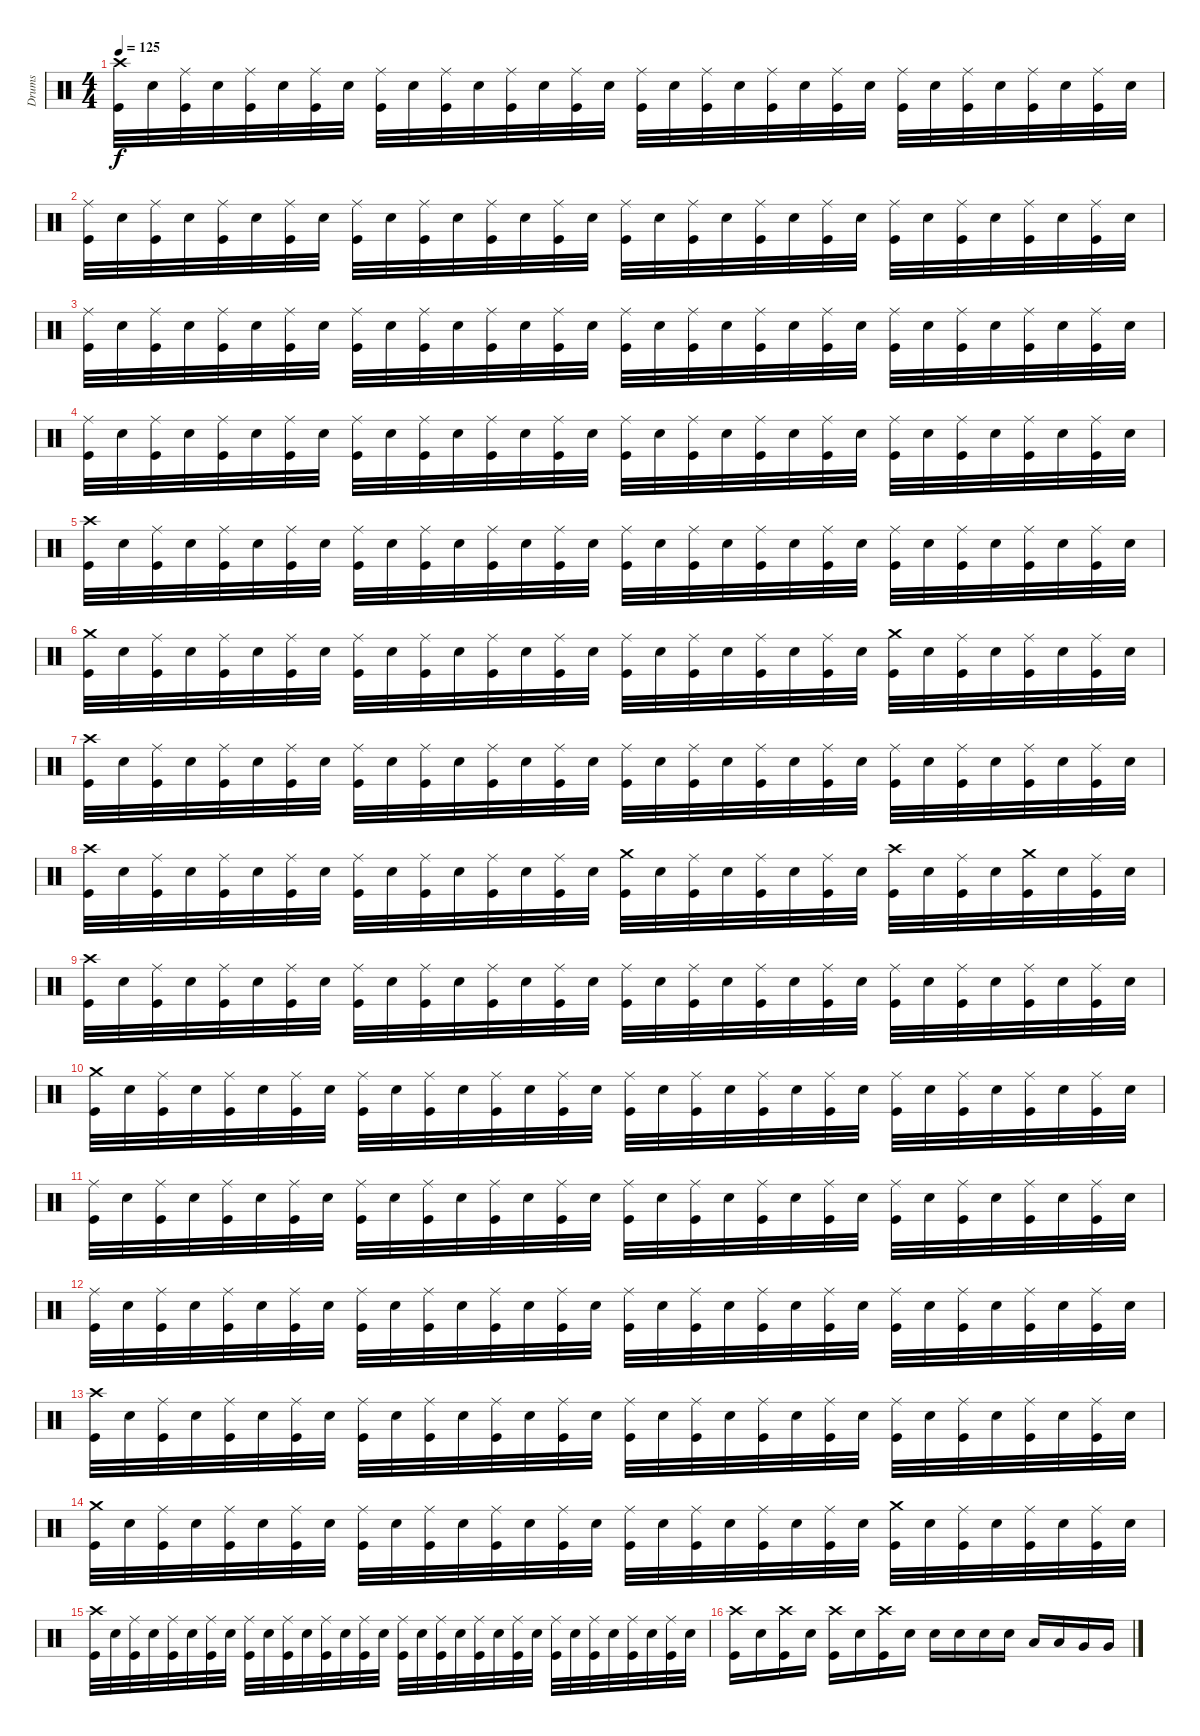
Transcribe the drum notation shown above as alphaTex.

\track ("Drums" "Drums") {instrument percussion}
\staff {score}
\articulation defaults
\ts (4 4)
\tempo 125
\clef neutral
\ks c
("Crash high (hit)" "Kick (hit)").32{dy f} "Electric Snare (hit)".32 ("Ride (middle)" "Kick (hit)").32 "Electric Snare (hit)".32 ("Ride (middle)" "Kick (hit)").32 "Electric Snare (hit)".32 ("Ride (middle)" "Kick (hit)").32 "Electric Snare (hit)".32 ("Ride (middle)" "Kick (hit)").32 "Electric Snare (hit)".32 ("Ride (middle)" "Kick (hit)").32 "Electric Snare (hit)".32 ("Ride (middle)" "Kick (hit)").32 "Electric Snare (hit)".32 ("Ride (middle)" "Kick (hit)").32 "Electric Snare (hit)".32 ("Ride (middle)" "Kick (hit)").32 "Electric Snare (hit)".32 ("Ride (middle)" "Kick (hit)").32 "Electric Snare (hit)".32 ("Ride (middle)" "Kick (hit)").32 "Electric Snare (hit)".32 ("Ride (middle)" "Kick (hit)").32 "Electric Snare (hit)".32 ("Ride (middle)" "Kick (hit)").32 "Electric Snare (hit)".32 ("Ride (middle)" "Kick (hit)").32 "Electric Snare (hit)".32 ("Ride (middle)" "Kick (hit)").32 "Electric Snare (hit)".32 ("Ride (middle)" "Kick (hit)").32 "Electric Snare (hit)".32 |
("Ride (middle)" "Kick (hit)").32 "Electric Snare (hit)".32 ("Ride (middle)" "Kick (hit)").32 "Electric Snare (hit)".32 ("Ride (middle)" "Kick (hit)").32 "Electric Snare (hit)".32 ("Ride (middle)" "Kick (hit)").32 "Electric Snare (hit)".32 ("Ride (middle)" "Kick (hit)").32 "Electric Snare (hit)".32 ("Ride (middle)" "Kick (hit)").32 "Electric Snare (hit)".32 ("Ride (middle)" "Kick (hit)").32 "Electric Snare (hit)".32 ("Ride (middle)" "Kick (hit)").32 "Electric Snare (hit)".32 ("Ride (middle)" "Kick (hit)").32 "Electric Snare (hit)".32 ("Ride (middle)" "Kick (hit)").32 "Electric Snare (hit)".32 ("Ride (middle)" "Kick (hit)").32 "Electric Snare (hit)".32 ("Ride (middle)" "Kick (hit)").32 "Electric Snare (hit)".32 ("Ride (middle)" "Kick (hit)").32 "Electric Snare (hit)".32 ("Ride (middle)" "Kick (hit)").32 "Electric Snare (hit)".32 ("Ride (middle)" "Kick (hit)").32 "Electric Snare (hit)".32 ("Ride (middle)" "Kick (hit)").32 "Electric Snare (hit)".32 |
("Ride (middle)" "Kick (hit)").32 "Electric Snare (hit)".32 ("Ride (middle)" "Kick (hit)").32 "Electric Snare (hit)".32 ("Ride (middle)" "Kick (hit)").32 "Electric Snare (hit)".32 ("Ride (middle)" "Kick (hit)").32 "Electric Snare (hit)".32 ("Ride (middle)" "Kick (hit)").32 "Electric Snare (hit)".32 ("Ride (middle)" "Kick (hit)").32 "Electric Snare (hit)".32 ("Ride (middle)" "Kick (hit)").32 "Electric Snare (hit)".32 ("Ride (middle)" "Kick (hit)").32 "Electric Snare (hit)".32 ("Ride (middle)" "Kick (hit)").32 "Electric Snare (hit)".32 ("Ride (middle)" "Kick (hit)").32 "Electric Snare (hit)".32 ("Ride (middle)" "Kick (hit)").32 "Electric Snare (hit)".32 ("Ride (middle)" "Kick (hit)").32 "Electric Snare (hit)".32 ("Ride (middle)" "Kick (hit)").32 "Electric Snare (hit)".32 ("Ride (middle)" "Kick (hit)").32 "Electric Snare (hit)".32 ("Ride (middle)" "Kick (hit)").32 "Electric Snare (hit)".32 ("Ride (middle)" "Kick (hit)").32 "Electric Snare (hit)".32 |
("Ride (middle)" "Kick (hit)").32 "Electric Snare (hit)".32 ("Ride (middle)" "Kick (hit)").32 "Electric Snare (hit)".32 ("Ride (middle)" "Kick (hit)").32 "Electric Snare (hit)".32 ("Ride (middle)" "Kick (hit)").32 "Electric Snare (hit)".32 ("Ride (middle)" "Kick (hit)").32 "Electric Snare (hit)".32 ("Ride (middle)" "Kick (hit)").32 "Electric Snare (hit)".32 ("Ride (middle)" "Kick (hit)").32 "Electric Snare (hit)".32 ("Ride (middle)" "Kick (hit)").32 "Electric Snare (hit)".32 ("Ride (middle)" "Kick (hit)").32 "Electric Snare (hit)".32 ("Ride (middle)" "Kick (hit)").32 "Electric Snare (hit)".32 ("Ride (middle)" "Kick (hit)").32 "Electric Snare (hit)".32 ("Ride (middle)" "Kick (hit)").32 "Electric Snare (hit)".32 ("Ride (middle)" "Kick (hit)").32 "Electric Snare (hit)".32 ("Ride (middle)" "Kick (hit)").32 "Electric Snare (hit)".32 ("Ride (middle)" "Kick (hit)").32 "Electric Snare (hit)".32 ("Ride (middle)" "Kick (hit)").32 "Electric Snare (hit)".32 |
("Crash high (hit)" "Kick (hit)").32 "Electric Snare (hit)".32 ("Ride (middle)" "Kick (hit)").32 "Electric Snare (hit)".32 ("Ride (middle)" "Kick (hit)").32 "Electric Snare (hit)".32 ("Ride (middle)" "Kick (hit)").32 "Electric Snare (hit)".32 ("Ride (middle)" "Kick (hit)").32 "Electric Snare (hit)".32 ("Ride (middle)" "Kick (hit)").32 "Electric Snare (hit)".32 ("Ride (middle)" "Kick (hit)").32 "Electric Snare (hit)".32 ("Ride (middle)" "Kick (hit)").32 "Electric Snare (hit)".32 ("Ride (middle)" "Kick (hit)").32 "Electric Snare (hit)".32 ("Ride (middle)" "Kick (hit)").32 "Electric Snare (hit)".32 ("Ride (middle)" "Kick (hit)").32 "Electric Snare (hit)".32 ("Ride (middle)" "Kick (hit)").32 "Electric Snare (hit)".32 ("Ride (middle)" "Kick (hit)").32 "Electric Snare (hit)".32 ("Ride (middle)" "Kick (hit)").32 "Electric Snare (hit)".32 ("Ride (middle)" "Kick (hit)").32 "Electric Snare (hit)".32 ("Ride (middle)" "Kick (hit)").32 "Electric Snare (hit)".32 |
("Crash medium (hit)" "Kick (hit)").32 "Electric Snare (hit)".32 ("Ride (middle)" "Kick (hit)").32 "Electric Snare (hit)".32 ("Ride (middle)" "Kick (hit)").32 "Electric Snare (hit)".32 ("Ride (middle)" "Kick (hit)").32 "Electric Snare (hit)".32 ("Ride (middle)" "Kick (hit)").32 "Electric Snare (hit)".32 ("Ride (middle)" "Kick (hit)").32 "Electric Snare (hit)".32 ("Ride (middle)" "Kick (hit)").32 "Electric Snare (hit)".32 ("Ride (middle)" "Kick (hit)").32 "Electric Snare (hit)".32 ("Ride (middle)" "Kick (hit)").32 "Electric Snare (hit)".32 ("Ride (middle)" "Kick (hit)").32 "Electric Snare (hit)".32 ("Ride (middle)" "Kick (hit)").32 "Electric Snare (hit)".32 ("Ride (middle)" "Kick (hit)").32 "Electric Snare (hit)".32 ("Crash medium (hit)" "Kick (hit)").32 "Electric Snare (hit)".32 ("Ride (middle)" "Kick (hit)").32 "Electric Snare (hit)".32 ("Ride (middle)" "Kick (hit)").32 "Electric Snare (hit)".32 ("Ride (middle)" "Kick (hit)").32 "Electric Snare (hit)".32 |
("Crash high (hit)" "Kick (hit)").32 "Electric Snare (hit)".32 ("Ride (middle)" "Kick (hit)").32 "Electric Snare (hit)".32 ("Ride (middle)" "Kick (hit)").32 "Electric Snare (hit)".32 ("Ride (middle)" "Kick (hit)").32 "Electric Snare (hit)".32 ("Ride (middle)" "Kick (hit)").32 "Electric Snare (hit)".32 ("Ride (middle)" "Kick (hit)").32 "Electric Snare (hit)".32 ("Ride (middle)" "Kick (hit)").32 "Electric Snare (hit)".32 ("Ride (middle)" "Kick (hit)").32 "Electric Snare (hit)".32 ("Ride (middle)" "Kick (hit)").32 "Electric Snare (hit)".32 ("Ride (middle)" "Kick (hit)").32 "Electric Snare (hit)".32 ("Ride (middle)" "Kick (hit)").32 "Electric Snare (hit)".32 ("Ride (middle)" "Kick (hit)").32 "Electric Snare (hit)".32 ("Ride (middle)" "Kick (hit)").32 "Electric Snare (hit)".32 ("Ride (middle)" "Kick (hit)").32 "Electric Snare (hit)".32 ("Ride (middle)" "Kick (hit)").32 "Electric Snare (hit)".32 ("Ride (middle)" "Kick (hit)").32 "Electric Snare (hit)".32 |
("Crash high (hit)" "Kick (hit)").32 "Electric Snare (hit)".32 ("Ride (middle)" "Kick (hit)").32 "Electric Snare (hit)".32 ("Ride (middle)" "Kick (hit)").32 "Electric Snare (hit)".32 ("Ride (middle)" "Kick (hit)").32 "Electric Snare (hit)".32 ("Ride (middle)" "Kick (hit)").32 "Electric Snare (hit)".32 ("Ride (middle)" "Kick (hit)").32 "Electric Snare (hit)".32 ("Ride (middle)" "Kick (hit)").32 "Electric Snare (hit)".32 ("Ride (middle)" "Kick (hit)").32 "Electric Snare (hit)".32 ("Crash medium (hit)" "Kick (hit)").32 "Electric Snare (hit)".32 ("Ride (middle)" "Kick (hit)").32 "Electric Snare (hit)".32 ("Ride (middle)" "Kick (hit)").32 "Electric Snare (hit)".32 ("Ride (middle)" "Kick (hit)").32 "Electric Snare (hit)".32 ("Crash high (hit)" "Kick (hit)").32 "Electric Snare (hit)".32 ("Ride (middle)" "Kick (hit)").32 "Electric Snare (hit)".32 ("Crash medium (hit)" "Kick (hit)").32 "Electric Snare (hit)".32 ("Ride (middle)" "Kick (hit)").32 "Electric Snare (hit)".32 |
("Crash high (hit)" "Kick (hit)").32 "Electric Snare (hit)".32 ("Ride (middle)" "Kick (hit)").32 "Electric Snare (hit)".32 ("Ride (middle)" "Kick (hit)").32 "Electric Snare (hit)".32 ("Ride (middle)" "Kick (hit)").32 "Electric Snare (hit)".32 ("Ride (middle)" "Kick (hit)").32 "Electric Snare (hit)".32 ("Ride (middle)" "Kick (hit)").32 "Electric Snare (hit)".32 ("Ride (middle)" "Kick (hit)").32 "Electric Snare (hit)".32 ("Ride (middle)" "Kick (hit)").32 "Electric Snare (hit)".32 ("Ride (middle)" "Kick (hit)").32 "Electric Snare (hit)".32 ("Ride (middle)" "Kick (hit)").32 "Electric Snare (hit)".32 ("Ride (middle)" "Kick (hit)").32 "Electric Snare (hit)".32 ("Ride (middle)" "Kick (hit)").32 "Electric Snare (hit)".32 ("Ride (middle)" "Kick (hit)").32 "Electric Snare (hit)".32 ("Ride (middle)" "Kick (hit)").32 "Electric Snare (hit)".32 ("Ride (middle)" "Kick (hit)").32 "Electric Snare (hit)".32 ("Ride (middle)" "Kick (hit)").32 "Electric Snare (hit)".32 |
("Crash medium (hit)" "Kick (hit)").32 "Electric Snare (hit)".32 ("Ride (middle)" "Kick (hit)").32 "Electric Snare (hit)".32 ("Ride (middle)" "Kick (hit)").32 "Electric Snare (hit)".32 ("Ride (middle)" "Kick (hit)").32 "Electric Snare (hit)".32 ("Ride (middle)" "Kick (hit)").32 "Electric Snare (hit)".32 ("Ride (middle)" "Kick (hit)").32 "Electric Snare (hit)".32 ("Ride (middle)" "Kick (hit)").32 "Electric Snare (hit)".32 ("Ride (middle)" "Kick (hit)").32 "Electric Snare (hit)".32 ("Ride (middle)" "Kick (hit)").32 "Electric Snare (hit)".32 ("Ride (middle)" "Kick (hit)").32 "Electric Snare (hit)".32 ("Ride (middle)" "Kick (hit)").32 "Electric Snare (hit)".32 ("Ride (middle)" "Kick (hit)").32 "Electric Snare (hit)".32 ("Ride (middle)" "Kick (hit)").32 "Electric Snare (hit)".32 ("Ride (middle)" "Kick (hit)").32 "Electric Snare (hit)".32 ("Ride (middle)" "Kick (hit)").32 "Electric Snare (hit)".32 ("Ride (middle)" "Kick (hit)").32 "Electric Snare (hit)".32 |
("Ride (middle)" "Kick (hit)").32 "Electric Snare (hit)".32 ("Ride (middle)" "Kick (hit)").32 "Electric Snare (hit)".32 ("Ride (middle)" "Kick (hit)").32 "Electric Snare (hit)".32 ("Ride (middle)" "Kick (hit)").32 "Electric Snare (hit)".32 ("Ride (middle)" "Kick (hit)").32 "Electric Snare (hit)".32 ("Ride (middle)" "Kick (hit)").32 "Electric Snare (hit)".32 ("Ride (middle)" "Kick (hit)").32 "Electric Snare (hit)".32 ("Ride (middle)" "Kick (hit)").32 "Electric Snare (hit)".32 ("Ride (middle)" "Kick (hit)").32 "Electric Snare (hit)".32 ("Ride (middle)" "Kick (hit)").32 "Electric Snare (hit)".32 ("Ride (middle)" "Kick (hit)").32 "Electric Snare (hit)".32 ("Ride (middle)" "Kick (hit)").32 "Electric Snare (hit)".32 ("Ride (middle)" "Kick (hit)").32 "Electric Snare (hit)".32 ("Ride (middle)" "Kick (hit)").32 "Electric Snare (hit)".32 ("Ride (middle)" "Kick (hit)").32 "Electric Snare (hit)".32 ("Ride (middle)" "Kick (hit)").32 "Electric Snare (hit)".32 |
("Ride (middle)" "Kick (hit)").32 "Electric Snare (hit)".32 ("Ride (middle)" "Kick (hit)").32 "Electric Snare (hit)".32 ("Ride (middle)" "Kick (hit)").32 "Electric Snare (hit)".32 ("Ride (middle)" "Kick (hit)").32 "Electric Snare (hit)".32 ("Ride (middle)" "Kick (hit)").32 "Electric Snare (hit)".32 ("Ride (middle)" "Kick (hit)").32 "Electric Snare (hit)".32 ("Ride (middle)" "Kick (hit)").32 "Electric Snare (hit)".32 ("Ride (middle)" "Kick (hit)").32 "Electric Snare (hit)".32 ("Ride (middle)" "Kick (hit)").32 "Electric Snare (hit)".32 ("Ride (middle)" "Kick (hit)").32 "Electric Snare (hit)".32 ("Ride (middle)" "Kick (hit)").32 "Electric Snare (hit)".32 ("Ride (middle)" "Kick (hit)").32 "Electric Snare (hit)".32 ("Ride (middle)" "Kick (hit)").32 "Electric Snare (hit)".32 ("Ride (middle)" "Kick (hit)").32 "Electric Snare (hit)".32 ("Ride (middle)" "Kick (hit)").32 "Electric Snare (hit)".32 ("Ride (middle)" "Kick (hit)").32 "Electric Snare (hit)".32 |
("Crash high (hit)" "Kick (hit)").32 "Electric Snare (hit)".32 ("Ride (middle)" "Kick (hit)").32 "Electric Snare (hit)".32 ("Ride (middle)" "Kick (hit)").32 "Electric Snare (hit)".32 ("Ride (middle)" "Kick (hit)").32 "Electric Snare (hit)".32 ("Ride (middle)" "Kick (hit)").32 "Electric Snare (hit)".32 ("Ride (middle)" "Kick (hit)").32 "Electric Snare (hit)".32 ("Ride (middle)" "Kick (hit)").32 "Electric Snare (hit)".32 ("Ride (middle)" "Kick (hit)").32 "Electric Snare (hit)".32 ("Ride (middle)" "Kick (hit)").32 "Electric Snare (hit)".32 ("Ride (middle)" "Kick (hit)").32 "Electric Snare (hit)".32 ("Ride (middle)" "Kick (hit)").32 "Electric Snare (hit)".32 ("Ride (middle)" "Kick (hit)").32 "Electric Snare (hit)".32 ("Ride (middle)" "Kick (hit)").32 "Electric Snare (hit)".32 ("Ride (middle)" "Kick (hit)").32 "Electric Snare (hit)".32 ("Ride (middle)" "Kick (hit)").32 "Electric Snare (hit)".32 ("Ride (middle)" "Kick (hit)").32 "Electric Snare (hit)".32 |
("Crash medium (hit)" "Kick (hit)").32 "Electric Snare (hit)".32 ("Ride (middle)" "Kick (hit)").32 "Electric Snare (hit)".32 ("Ride (middle)" "Kick (hit)").32 "Electric Snare (hit)".32 ("Ride (middle)" "Kick (hit)").32 "Electric Snare (hit)".32 ("Ride (middle)" "Kick (hit)").32 "Electric Snare (hit)".32 ("Ride (middle)" "Kick (hit)").32 "Electric Snare (hit)".32 ("Ride (middle)" "Kick (hit)").32 "Electric Snare (hit)".32 ("Ride (middle)" "Kick (hit)").32 "Electric Snare (hit)".32 ("Ride (middle)" "Kick (hit)").32 "Electric Snare (hit)".32 ("Ride (middle)" "Kick (hit)").32 "Electric Snare (hit)".32 ("Ride (middle)" "Kick (hit)").32 "Electric Snare (hit)".32 ("Ride (middle)" "Kick (hit)").32 "Electric Snare (hit)".32 ("Crash medium (hit)" "Kick (hit)").32 "Electric Snare (hit)".32 ("Ride (middle)" "Kick (hit)").32 "Electric Snare (hit)".32 ("Ride (middle)" "Kick (hit)").32 "Electric Snare (hit)".32 ("Ride (middle)" "Kick (hit)").32 "Electric Snare (hit)".32 |
("Crash high (hit)" "Kick (hit)").32 "Electric Snare (hit)".32 ("Ride (middle)" "Kick (hit)").32 "Electric Snare (hit)".32 ("Ride (middle)" "Kick (hit)").32 "Electric Snare (hit)".32 ("Ride (middle)" "Kick (hit)").32 "Electric Snare (hit)".32 ("Ride (middle)" "Kick (hit)").32 "Electric Snare (hit)".32 ("Ride (middle)" "Kick (hit)").32 "Electric Snare (hit)".32 ("Ride (middle)" "Kick (hit)").32 "Electric Snare (hit)".32 ("Ride (middle)" "Kick (hit)").32 "Electric Snare (hit)".32 ("Ride (middle)" "Kick (hit)").32 "Electric Snare (hit)".32 ("Ride (middle)" "Kick (hit)").32 "Electric Snare (hit)".32 ("Ride (middle)" "Kick (hit)").32 "Electric Snare (hit)".32 ("Ride (middle)" "Kick (hit)").32 "Electric Snare (hit)".32 ("Ride (middle)" "Kick (hit)").32 "Electric Snare (hit)".32 ("Ride (middle)" "Kick (hit)").32 "Electric Snare (hit)".32 ("Ride (middle)" "Kick (hit)").32 "Electric Snare (hit)".32 ("Ride (middle)" "Kick (hit)").32 "Electric Snare (hit)".32 |
("Crash high (hit)" "Kick (hit)").16 "Electric Snare (hit)".16 ("Crash high (hit)" "Kick (hit)").16 "Electric Snare (hit)".16 ("Crash high (hit)" "Kick (hit)").16 "Electric Snare (hit)".16 ("Crash high (hit)" "Kick (hit)").16 "Electric Snare (hit)".16 "Electric Snare (hit)".16 "Electric Snare (hit)".16 "Electric Snare (hit)".16 "Electric Snare (hit)".16 "Low Tom (hit)".16 "Low Tom (hit)".16 "Very Low Tom (hit)".16 "Very Low Tom (hit)".16
